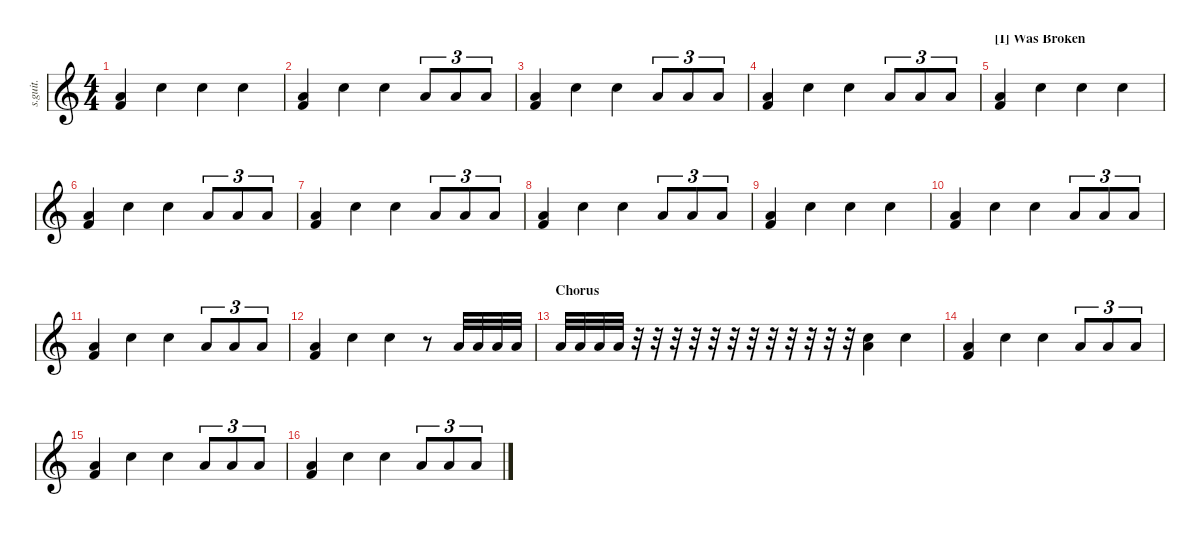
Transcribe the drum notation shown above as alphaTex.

\defaultSystemsLayout 4
\hideDynamics
\bracketExtendMode nobrackets
\track ("Daniel Platzman - Drums" "s.guit.") {instrument percussion}
\staff {score}
\articulation defaults
\ts (4 4)
\tempo (125 hide)
\clef g2
\ks c
("Low Floor Tom (hit)" "Kick (hit) 2").4{lyrics (0 "") lyrics (1 "") lyrics (2 "") lyrics (3 "") lyrics (4 "") dy f} "Hand Clap (hit)".4{lyrics (0 "") lyrics (1 "") lyrics (2 "") lyrics (3 "") lyrics (4 "")} "Electric Snare (hit)".4{lyrics (0 "") lyrics (1 "") lyrics (2 "") lyrics (3 "") lyrics (4 "")} "Hand Clap (hit)".4{lyrics (0 "") lyrics (1 "") lyrics (2 "") lyrics (3 "") lyrics (4 "")} |
("Low Floor Tom (hit)" "Kick (hit) 2").4{lyrics (0 "") lyrics (1 "") lyrics (2 "") lyrics (3 "") lyrics (4 "")} "Hand Clap (hit)".4{lyrics (0 "") lyrics (1 "") lyrics (2 "") lyrics (3 "") lyrics (4 "")} "Electric Snare (hit)".4{lyrics (0 "") lyrics (1 "") lyrics (2 "") lyrics (3 "") lyrics (4 "")} "Low Floor Tom (hit)".8{tu (3 2) lyrics (0 "") lyrics (1 "") lyrics (2 "") lyrics (3 "") lyrics (4 "")} "Low Floor Tom (hit)".8{tu (3 2) lyrics (0 "") lyrics (1 "") lyrics (2 "") lyrics (3 "") lyrics (4 "")} "Low Floor Tom (hit)".8{tu (3 2) lyrics (0 "") lyrics (1 "") lyrics (2 "") lyrics (3 "") lyrics (4 "")} |
("Low Floor Tom (hit)" "Kick (hit) 2").4{lyrics (0 "") lyrics (1 "") lyrics (2 "") lyrics (3 "") lyrics (4 "")} "Hand Clap (hit)".4{lyrics (0 "") lyrics (1 "") lyrics (2 "") lyrics (3 "") lyrics (4 "")} "Electric Snare (hit)".4{lyrics (0 "") lyrics (1 "") lyrics (2 "") lyrics (3 "") lyrics (4 "")} "Low Floor Tom (hit)".8{tu (3 2) lyrics (0 "") lyrics (1 "") lyrics (2 "") lyrics (3 "") lyrics (4 "")} "Low Floor Tom (hit)".8{tu (3 2) lyrics (0 "") lyrics (1 "") lyrics (2 "") lyrics (3 "") lyrics (4 "")} "Low Floor Tom (hit)".8{tu (3 2) lyrics (0 "") lyrics (1 "") lyrics (2 "") lyrics (3 "") lyrics (4 "")} |
("Low Floor Tom (hit)" "Kick (hit) 2").4{lyrics (0 "") lyrics (1 "") lyrics (2 "") lyrics (3 "") lyrics (4 "")} "Hand Clap (hit)".4{lyrics (0 "") lyrics (1 "") lyrics (2 "") lyrics (3 "") lyrics (4 "")} "Electric Snare (hit)".4{lyrics (0 "") lyrics (1 "") lyrics (2 "") lyrics (3 "") lyrics (4 "")} "Low Floor Tom (hit)".8{tu (3 2) lyrics (0 "") lyrics (1 "") lyrics (2 "") lyrics (3 "") lyrics (4 "")} "Low Floor Tom (hit)".8{tu (3 2) lyrics (0 "") lyrics (1 "") lyrics (2 "") lyrics (3 "") lyrics (4 "")} "Low Floor Tom (hit)".8{tu (3 2) lyrics (0 "") lyrics (1 "") lyrics (2 "") lyrics (3 "") lyrics (4 "")} |
\section ("I" "Was Broken")
("Low Floor Tom (hit)" "Kick (hit) 2").4{lyrics (0 "") lyrics (1 "") lyrics (2 "") lyrics (3 "") lyrics (4 "")} "Hand Clap (hit)".4{lyrics (0 "") lyrics (1 "") lyrics (2 "") lyrics (3 "") lyrics (4 "")} "Electric Snare (hit)".4{lyrics (0 "") lyrics (1 "") lyrics (2 "") lyrics (3 "") lyrics (4 "")} "Hand Clap (hit)".4{lyrics (0 "") lyrics (1 "") lyrics (2 "") lyrics (3 "") lyrics (4 "")} |
("Low Floor Tom (hit)" "Kick (hit) 2").4{lyrics (0 "") lyrics (1 "") lyrics (2 "") lyrics (3 "") lyrics (4 "")} "Hand Clap (hit)".4{lyrics (0 "") lyrics (1 "") lyrics (2 "") lyrics (3 "") lyrics (4 "")} "Electric Snare (hit)".4{lyrics (0 "") lyrics (1 "") lyrics (2 "") lyrics (3 "") lyrics (4 "")} "Low Floor Tom (hit)".8{tu (3 2) lyrics (0 "") lyrics (1 "") lyrics (2 "") lyrics (3 "") lyrics (4 "")} "Low Floor Tom (hit)".8{tu (3 2) lyrics (0 "") lyrics (1 "") lyrics (2 "") lyrics (3 "") lyrics (4 "")} "Low Floor Tom (hit)".8{tu (3 2) lyrics (0 "") lyrics (1 "") lyrics (2 "") lyrics (3 "") lyrics (4 "")} |
("Low Floor Tom (hit)" "Kick (hit) 2").4{lyrics (0 "") lyrics (1 "") lyrics (2 "") lyrics (3 "") lyrics (4 "")} "Hand Clap (hit)".4{lyrics (0 "") lyrics (1 "") lyrics (2 "") lyrics (3 "") lyrics (4 "")} "Electric Snare (hit)".4{lyrics (0 "") lyrics (1 "") lyrics (2 "") lyrics (3 "") lyrics (4 "")} "Low Floor Tom (hit)".8{tu (3 2) lyrics (0 "") lyrics (1 "") lyrics (2 "") lyrics (3 "") lyrics (4 "")} "Low Floor Tom (hit)".8{tu (3 2) lyrics (0 "") lyrics (1 "") lyrics (2 "") lyrics (3 "") lyrics (4 "")} "Low Floor Tom (hit)".8{tu (3 2) lyrics (0 "") lyrics (1 "") lyrics (2 "") lyrics (3 "") lyrics (4 "")} |
("Low Floor Tom (hit)" "Kick (hit) 2").4{lyrics (0 "") lyrics (1 "") lyrics (2 "") lyrics (3 "") lyrics (4 "")} "Hand Clap (hit)".4{lyrics (0 "") lyrics (1 "") lyrics (2 "") lyrics (3 "") lyrics (4 "")} "Electric Snare (hit)".4{lyrics (0 "") lyrics (1 "") lyrics (2 "") lyrics (3 "") lyrics (4 "")} "Low Floor Tom (hit)".8{tu (3 2) lyrics (0 "") lyrics (1 "") lyrics (2 "") lyrics (3 "") lyrics (4 "")} "Low Floor Tom (hit)".8{tu (3 2) lyrics (0 "") lyrics (1 "") lyrics (2 "") lyrics (3 "") lyrics (4 "")} "Low Floor Tom (hit)".8{tu (3 2) lyrics (0 "") lyrics (1 "") lyrics (2 "") lyrics (3 "") lyrics (4 "")} |
("Low Floor Tom (hit)" "Kick (hit) 2").4{lyrics (0 "") lyrics (1 "") lyrics (2 "") lyrics (3 "") lyrics (4 "")} "Hand Clap (hit)".4{lyrics (0 "") lyrics (1 "") lyrics (2 "") lyrics (3 "") lyrics (4 "")} "Electric Snare (hit)".4{lyrics (0 "") lyrics (1 "") lyrics (2 "") lyrics (3 "") lyrics (4 "")} "Hand Clap (hit)".4{lyrics (0 "") lyrics (1 "") lyrics (2 "") lyrics (3 "") lyrics (4 "")} |
("Low Floor Tom (hit)" "Kick (hit) 2").4{lyrics (0 "") lyrics (1 "") lyrics (2 "") lyrics (3 "") lyrics (4 "")} "Hand Clap (hit)".4{lyrics (0 "") lyrics (1 "") lyrics (2 "") lyrics (3 "") lyrics (4 "")} "Electric Snare (hit)".4{lyrics (0 "") lyrics (1 "") lyrics (2 "") lyrics (3 "") lyrics (4 "")} "Low Floor Tom (hit)".8{tu (3 2) lyrics (0 "") lyrics (1 "") lyrics (2 "") lyrics (3 "") lyrics (4 "")} "Low Floor Tom (hit)".8{tu (3 2) lyrics (0 "") lyrics (1 "") lyrics (2 "") lyrics (3 "") lyrics (4 "")} "Low Floor Tom (hit)".8{tu (3 2) lyrics (0 "") lyrics (1 "") lyrics (2 "") lyrics (3 "") lyrics (4 "")} |
("Low Floor Tom (hit)" "Kick (hit) 2").4{lyrics (0 "") lyrics (1 "") lyrics (2 "") lyrics (3 "") lyrics (4 "")} "Hand Clap (hit)".4{lyrics (0 "") lyrics (1 "") lyrics (2 "") lyrics (3 "") lyrics (4 "")} "Electric Snare (hit)".4{lyrics (0 "") lyrics (1 "") lyrics (2 "") lyrics (3 "") lyrics (4 "")} "Low Floor Tom (hit)".8{tu (3 2) lyrics (0 "") lyrics (1 "") lyrics (2 "") lyrics (3 "") lyrics (4 "")} "Low Floor Tom (hit)".8{tu (3 2) lyrics (0 "") lyrics (1 "") lyrics (2 "") lyrics (3 "") lyrics (4 "")} "Low Floor Tom (hit)".8{tu (3 2) lyrics (0 "") lyrics (1 "") lyrics (2 "") lyrics (3 "") lyrics (4 "")} |
("Low Floor Tom (hit)" "Kick (hit) 2").4{lyrics (0 "") lyrics (1 "") lyrics (2 "") lyrics (3 "") lyrics (4 "")} "Hand Clap (hit)".4{lyrics (0 "") lyrics (1 "") lyrics (2 "") lyrics (3 "") lyrics (4 "")} "Electric Snare (hit)".4{lyrics (0 "") lyrics (1 "") lyrics (2 "") lyrics (3 "") lyrics (4 "")} r.8 "Low Floor Tom (hit)".32{lyrics (0 "") lyrics (1 "") lyrics (2 "") lyrics (3 "") lyrics (4 "") dy ppp} "Low Floor Tom (hit)".32{lyrics (0 "") lyrics (1 "") lyrics (2 "") lyrics (3 "") lyrics (4 "")} "Low Floor Tom (hit)".32{lyrics (0 "") lyrics (1 "") lyrics (2 "") lyrics (3 "") lyrics (4 "")} "Low Floor Tom (hit)".32{lyrics (0 "") lyrics (1 "") lyrics (2 "") lyrics (3 "") lyrics (4 "")} |
\section ("" "Chorus")
"Low Floor Tom (hit)".32{lyrics (0 "") lyrics (1 "") lyrics (2 "") lyrics (3 "") lyrics (4 "") dy pp} "Low Floor Tom (hit)".32{lyrics (0 "") lyrics (1 "") lyrics (2 "") lyrics (3 "") lyrics (4 "")} "Low Floor Tom (hit)".32{lyrics (0 "") lyrics (1 "") lyrics (2 "") lyrics (3 "") lyrics (4 "") dy p} "Low Floor Tom (hit)".32{lyrics (0 "") lyrics (1 "") lyrics (2 "") lyrics (3 "") lyrics (4 "") dy mp} r.32 r.32 r.32 r.32 r.32 r.32 r.32 r.32 r.32 r.32 r.32 r.32 ("Low Floor Tom (hit)" "Electric Snare (hit)").4{lyrics (0 "") lyrics (1 "") lyrics (2 "") lyrics (3 "") lyrics (4 "") dy fff} "Hand Clap (hit)".4{lyrics (0 "") lyrics (1 "") lyrics (2 "") lyrics (3 "") lyrics (4 "")} |
("Low Floor Tom (hit)" "Kick (hit) 2").4{lyrics (0 "") lyrics (1 "") lyrics (2 "") lyrics (3 "") lyrics (4 "") dy f} "Hand Clap (hit)".4{lyrics (0 "") lyrics (1 "") lyrics (2 "") lyrics (3 "") lyrics (4 "")} "Electric Snare (hit)".4{lyrics (0 "") lyrics (1 "") lyrics (2 "") lyrics (3 "") lyrics (4 "")} "Low Floor Tom (hit)".8{tu (3 2) lyrics (0 "") lyrics (1 "") lyrics (2 "") lyrics (3 "") lyrics (4 "")} "Low Floor Tom (hit)".8{tu (3 2) lyrics (0 "") lyrics (1 "") lyrics (2 "") lyrics (3 "") lyrics (4 "")} "Low Floor Tom (hit)".8{tu (3 2) lyrics (0 "") lyrics (1 "") lyrics (2 "") lyrics (3 "") lyrics (4 "")} |
("Low Floor Tom (hit)" "Kick (hit) 2").4{lyrics (0 "") lyrics (1 "") lyrics (2 "") lyrics (3 "") lyrics (4 "")} "Hand Clap (hit)".4{lyrics (0 "") lyrics (1 "") lyrics (2 "") lyrics (3 "") lyrics (4 "")} "Electric Snare (hit)".4{lyrics (0 "") lyrics (1 "") lyrics (2 "") lyrics (3 "") lyrics (4 "")} "Low Floor Tom (hit)".8{tu (3 2) lyrics (0 "") lyrics (1 "") lyrics (2 "") lyrics (3 "") lyrics (4 "")} "Low Floor Tom (hit)".8{tu (3 2) lyrics (0 "") lyrics (1 "") lyrics (2 "") lyrics (3 "") lyrics (4 "")} "Low Floor Tom (hit)".8{tu (3 2) lyrics (0 "") lyrics (1 "") lyrics (2 "") lyrics (3 "") lyrics (4 "")} |
("Low Floor Tom (hit)" "Kick (hit) 2").4{lyrics (0 "") lyrics (1 "") lyrics (2 "") lyrics (3 "") lyrics (4 "")} "Hand Clap (hit)".4{lyrics (0 "") lyrics (1 "") lyrics (2 "") lyrics (3 "") lyrics (4 "")} "Electric Snare (hit)".4{lyrics (0 "") lyrics (1 "") lyrics (2 "") lyrics (3 "") lyrics (4 "")} "Low Floor Tom (hit)".8{tu (3 2) lyrics (0 "") lyrics (1 "") lyrics (2 "") lyrics (3 "") lyrics (4 "")} "Low Floor Tom (hit)".8{tu (3 2) lyrics (0 "") lyrics (1 "") lyrics (2 "") lyrics (3 "") lyrics (4 "")} "Low Floor Tom (hit)".8{tu (3 2) lyrics (0 "") lyrics (1 "") lyrics (2 "") lyrics (3 "") lyrics (4 "")}
